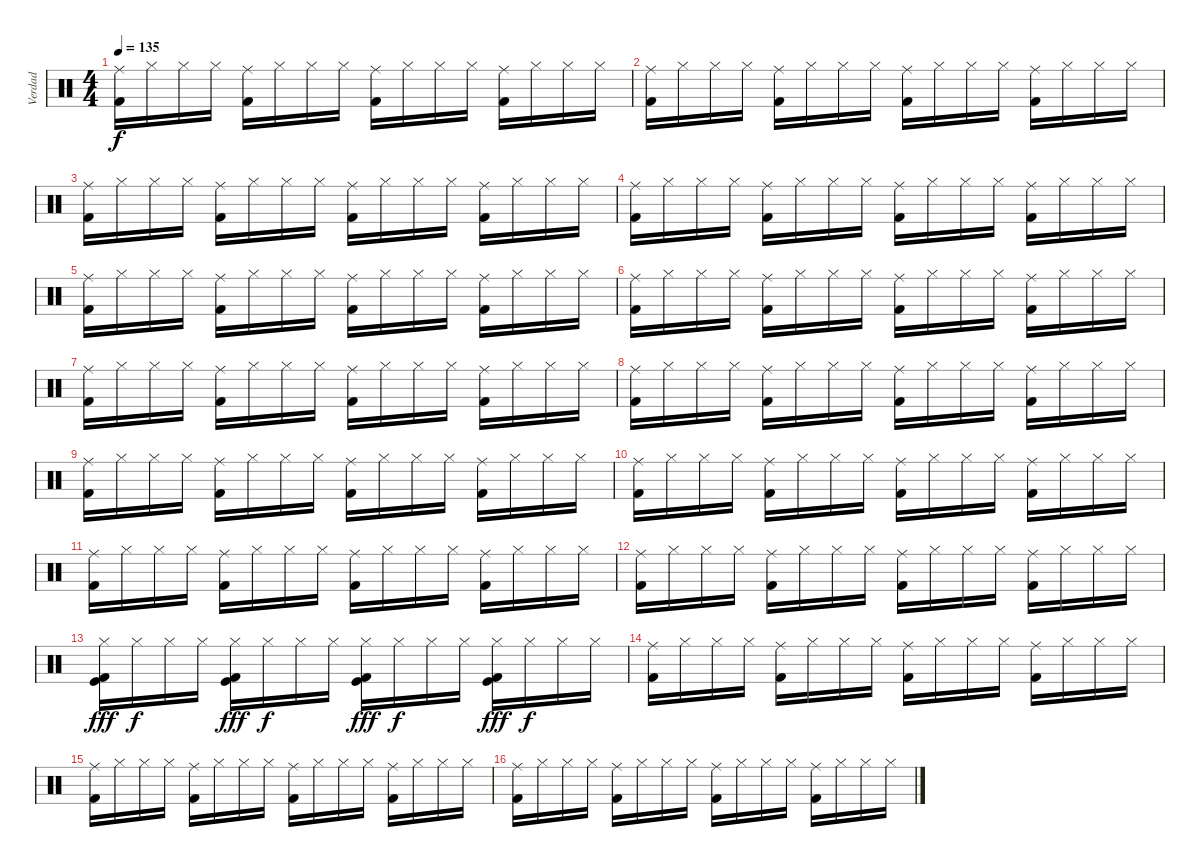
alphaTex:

\track ("Verdad" "Verdad") {instrument percussion}
\staff {score}
\articulation defaults
\ts (4 4)
\tempo 135
\clef neutral
\ks c
("Kick (hit) 2" "Ride (middle)").16{dy f} "Hi-Hat (closed)".16 "Hi-Hat (closed)".16 "Hi-Hat (closed)".16 ("Kick (hit) 2" "Ride (middle)").16 "Hi-Hat (closed)".16 "Hi-Hat (closed)".16 "Hi-Hat (closed)".16 ("Kick (hit) 2" "Ride (middle)").16 "Hi-Hat (closed)".16 "Hi-Hat (closed)".16 "Hi-Hat (closed)".16 ("Kick (hit) 2" "Ride (middle)").16 "Hi-Hat (closed)".16 "Hi-Hat (closed)".16 "Hi-Hat (closed)".16 |
("Kick (hit) 2" "Ride (middle)").16 "Hi-Hat (closed)".16 "Hi-Hat (closed)".16 "Hi-Hat (closed)".16 ("Kick (hit) 2" "Ride (middle)").16 "Hi-Hat (closed)".16 "Hi-Hat (closed)".16 "Hi-Hat (closed)".16 ("Kick (hit) 2" "Ride (middle)").16 "Hi-Hat (closed)".16 "Hi-Hat (closed)".16 "Hi-Hat (closed)".16 ("Kick (hit) 2" "Ride (middle)").16 "Hi-Hat (closed)".16 "Hi-Hat (closed)".16 "Hi-Hat (closed)".16 |
("Kick (hit) 2" "Ride (middle)").16 "Hi-Hat (closed)".16 "Hi-Hat (closed)".16 "Hi-Hat (closed)".16 ("Kick (hit) 2" "Ride (middle)").16 "Hi-Hat (closed)".16 "Hi-Hat (closed)".16 "Hi-Hat (closed)".16 ("Kick (hit) 2" "Ride (middle)").16 "Hi-Hat (closed)".16 "Hi-Hat (closed)".16 "Hi-Hat (closed)".16 ("Kick (hit) 2" "Ride (middle)").16 "Hi-Hat (closed)".16 "Hi-Hat (closed)".16 "Hi-Hat (closed)".16 |
("Kick (hit) 2" "Ride (middle)").16 "Hi-Hat (closed)".16 "Hi-Hat (closed)".16 "Hi-Hat (closed)".16 ("Kick (hit) 2" "Ride (middle)").16 "Hi-Hat (closed)".16 "Hi-Hat (closed)".16 "Hi-Hat (closed)".16 ("Kick (hit) 2" "Ride (middle)").16 "Hi-Hat (closed)".16 "Hi-Hat (closed)".16 "Hi-Hat (closed)".16 ("Kick (hit) 2" "Ride (middle)").16 "Hi-Hat (closed)".16 "Hi-Hat (closed)".16 "Hi-Hat (closed)".16 |
("Kick (hit) 2" "Ride (middle)").16 "Hi-Hat (closed)".16 "Hi-Hat (closed)".16 "Hi-Hat (closed)".16 ("Kick (hit) 2" "Ride (middle)").16 "Hi-Hat (closed)".16 "Hi-Hat (closed)".16 "Hi-Hat (closed)".16 ("Kick (hit) 2" "Ride (middle)").16 "Hi-Hat (closed)".16 "Hi-Hat (closed)".16 "Hi-Hat (closed)".16 ("Kick (hit) 2" "Ride (middle)").16 "Hi-Hat (closed)".16 "Hi-Hat (closed)".16 "Hi-Hat (closed)".16 |
("Kick (hit) 2" "Ride (middle)").16 "Hi-Hat (closed)".16 "Hi-Hat (closed)".16 "Hi-Hat (closed)".16 ("Kick (hit) 2" "Ride (middle)").16 "Hi-Hat (closed)".16 "Hi-Hat (closed)".16 "Hi-Hat (closed)".16 ("Kick (hit) 2" "Ride (middle)").16 "Hi-Hat (closed)".16 "Hi-Hat (closed)".16 "Hi-Hat (closed)".16 ("Kick (hit) 2" "Ride (middle)").16 "Hi-Hat (closed)".16 "Hi-Hat (closed)".16 "Hi-Hat (closed)".16 |
("Kick (hit) 2" "Ride (middle)").16 "Hi-Hat (closed)".16 "Hi-Hat (closed)".16 "Hi-Hat (closed)".16 ("Kick (hit) 2" "Ride (middle)").16 "Hi-Hat (closed)".16 "Hi-Hat (closed)".16 "Hi-Hat (closed)".16 ("Kick (hit) 2" "Ride (middle)").16 "Hi-Hat (closed)".16 "Hi-Hat (closed)".16 "Hi-Hat (closed)".16 ("Kick (hit) 2" "Ride (middle)").16 "Hi-Hat (closed)".16 "Hi-Hat (closed)".16 "Hi-Hat (closed)".16 |
("Kick (hit) 2" "Ride (middle)").16 "Hi-Hat (closed)".16 "Hi-Hat (closed)".16 "Hi-Hat (closed)".16 ("Kick (hit) 2" "Ride (middle)").16 "Hi-Hat (closed)".16 "Hi-Hat (closed)".16 "Hi-Hat (closed)".16 ("Kick (hit) 2" "Ride (middle)").16 "Hi-Hat (closed)".16 "Hi-Hat (closed)".16 "Hi-Hat (closed)".16 ("Kick (hit) 2" "Ride (middle)").16 "Hi-Hat (closed)".16 "Hi-Hat (closed)".16 "Hi-Hat (closed)".16 |
("Kick (hit) 2" "Ride (middle)").16 "Hi-Hat (closed)".16 "Hi-Hat (closed)".16 "Hi-Hat (closed)".16 ("Kick (hit) 2" "Ride (middle)").16 "Hi-Hat (closed)".16 "Hi-Hat (closed)".16 "Hi-Hat (closed)".16 ("Kick (hit) 2" "Ride (middle)").16 "Hi-Hat (closed)".16 "Hi-Hat (closed)".16 "Hi-Hat (closed)".16 ("Kick (hit) 2" "Ride (middle)").16 "Hi-Hat (closed)".16 "Hi-Hat (closed)".16 "Hi-Hat (closed)".16 |
("Kick (hit) 2" "Ride (middle)").16 "Hi-Hat (closed)".16 "Hi-Hat (closed)".16 "Hi-Hat (closed)".16 ("Kick (hit) 2" "Ride (middle)").16 "Hi-Hat (closed)".16 "Hi-Hat (closed)".16 "Hi-Hat (closed)".16 ("Kick (hit) 2" "Ride (middle)").16 "Hi-Hat (closed)".16 "Hi-Hat (closed)".16 "Hi-Hat (closed)".16 ("Kick (hit) 2" "Ride (middle)").16 "Hi-Hat (closed)".16 "Hi-Hat (closed)".16 "Hi-Hat (closed)".16 |
("Kick (hit) 2" "Ride (middle)").16 "Hi-Hat (closed)".16 "Hi-Hat (closed)".16 "Hi-Hat (closed)".16 ("Kick (hit) 2" "Ride (middle)").16 "Hi-Hat (closed)".16 "Hi-Hat (closed)".16 "Hi-Hat (closed)".16 ("Kick (hit) 2" "Ride (middle)").16 "Hi-Hat (closed)".16 "Hi-Hat (closed)".16 "Hi-Hat (closed)".16 ("Kick (hit) 2" "Ride (middle)").16 "Hi-Hat (closed)".16 "Hi-Hat (closed)".16 "Hi-Hat (closed)".16 |
("Kick (hit) 2" "Ride (middle)").16 "Hi-Hat (closed)".16 "Hi-Hat (closed)".16 "Hi-Hat (closed)".16 ("Kick (hit) 2" "Ride (middle)").16 "Hi-Hat (closed)".16 "Hi-Hat (closed)".16 "Hi-Hat (closed)".16 ("Kick (hit) 2" "Ride (middle)").16 "Hi-Hat (closed)".16 "Hi-Hat (closed)".16 "Hi-Hat (closed)".16 ("Kick (hit) 2" "Ride (middle)").16 "Hi-Hat (closed)".16 "Hi-Hat (closed)".16 "Hi-Hat (closed)".16 |
("Kick (hit) 2" "Kick (hit)" "Hi-Hat (closed)").16{dy fff} "Hi-Hat (closed)".16{dy f} "Hi-Hat (closed)".16 "Hi-Hat (closed)".16 ("Kick (hit) 2" "Kick (hit)" "Hi-Hat (closed)").16{dy fff} "Hi-Hat (closed)".16{dy f} "Hi-Hat (closed)".16 "Hi-Hat (closed)".16 ("Kick (hit) 2" "Kick (hit)" "Hi-Hat (closed)").16{dy fff} "Hi-Hat (closed)".16{dy f} "Hi-Hat (closed)".16 "Hi-Hat (closed)".16 ("Kick (hit) 2" "Kick (hit)" "Hi-Hat (closed)").16{dy fff} "Hi-Hat (closed)".16{dy f} "Hi-Hat (closed)".16 "Hi-Hat (closed)".16 |
("Kick (hit) 2" "Ride (middle)").16 "Hi-Hat (closed)".16 "Hi-Hat (closed)".16 "Hi-Hat (closed)".16 ("Kick (hit) 2" "Ride (middle)").16 "Hi-Hat (closed)".16 "Hi-Hat (closed)".16 "Hi-Hat (closed)".16 ("Kick (hit) 2" "Ride (middle)").16 "Hi-Hat (closed)".16 "Hi-Hat (closed)".16 "Hi-Hat (closed)".16 ("Kick (hit) 2" "Ride (middle)").16 "Hi-Hat (closed)".16 "Hi-Hat (closed)".16 "Hi-Hat (closed)".16 |
("Kick (hit) 2" "Ride (middle)").16 "Hi-Hat (closed)".16 "Hi-Hat (closed)".16 "Hi-Hat (closed)".16 ("Kick (hit) 2" "Ride (middle)").16 "Hi-Hat (closed)".16 "Hi-Hat (closed)".16 "Hi-Hat (closed)".16 ("Kick (hit) 2" "Ride (middle)").16 "Hi-Hat (closed)".16 "Hi-Hat (closed)".16 "Hi-Hat (closed)".16 ("Kick (hit) 2" "Ride (middle)").16 "Hi-Hat (closed)".16 "Hi-Hat (closed)".16 "Hi-Hat (closed)".16 |
("Kick (hit) 2" "Ride (middle)").16 "Hi-Hat (closed)".16 "Hi-Hat (closed)".16 "Hi-Hat (closed)".16 ("Kick (hit) 2" "Ride (middle)").16 "Hi-Hat (closed)".16 "Hi-Hat (closed)".16 "Hi-Hat (closed)".16 ("Kick (hit) 2" "Ride (middle)").16 "Hi-Hat (closed)".16 "Hi-Hat (closed)".16 "Hi-Hat (closed)".16 ("Kick (hit) 2" "Ride (middle)").16 "Hi-Hat (closed)".16 "Hi-Hat (closed)".16 "Hi-Hat (closed)".16
